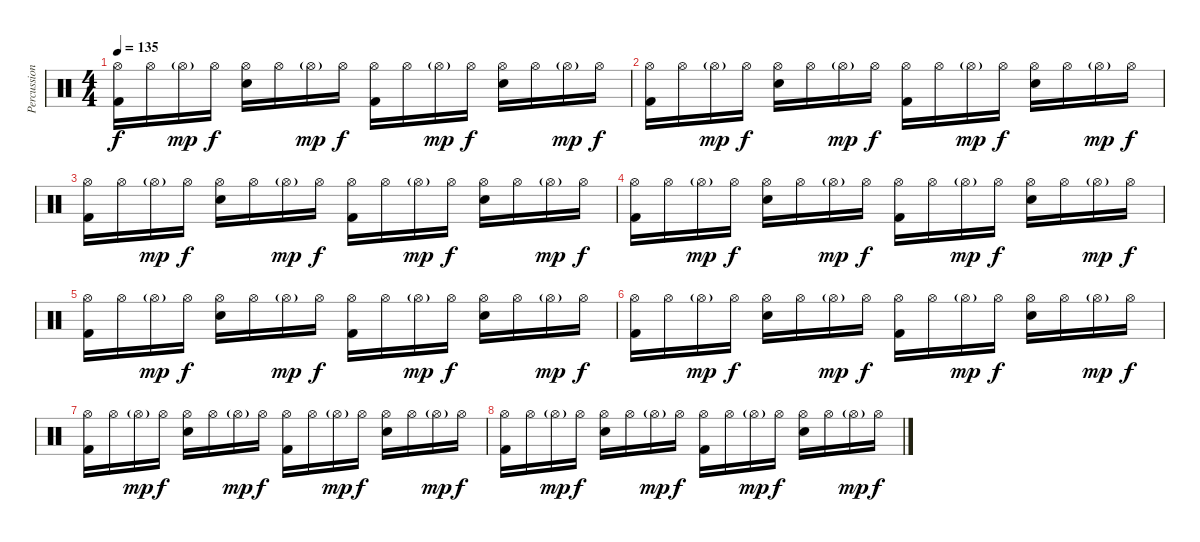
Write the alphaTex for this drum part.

\track ("Percussion" "Percussion") {instrument percussion}
\staff {score}
\articulation defaults
\ts (4 4)
\tempo 135
\clef neutral
\ks c
("Hi-Hat (open)" "Kick (hit) 2").16{dy f} "Hi-Hat (open)".16 "Hi-Hat (open)"{g}.16{dy mp} "Hi-Hat (open)".16{dy f} ("Hi-Hat (open)" "Electric Snare (hit)").16 "Hi-Hat (open)".16 "Hi-Hat (open)"{g}.16{dy mp} "Hi-Hat (open)".16{dy f} ("Hi-Hat (open)" "Kick (hit) 2").16 "Hi-Hat (open)".16 "Hi-Hat (open)"{g}.16{dy mp} "Hi-Hat (open)".16{dy f} ("Hi-Hat (open)" "Electric Snare (hit)").16 "Hi-Hat (open)".16 "Hi-Hat (open)"{g}.16{dy mp} "Hi-Hat (open)".16{dy f} |
("Hi-Hat (open)" "Kick (hit) 2").16 "Hi-Hat (open)".16 "Hi-Hat (open)"{g}.16{dy mp} "Hi-Hat (open)".16{dy f} ("Hi-Hat (open)" "Electric Snare (hit)").16 "Hi-Hat (open)".16 "Hi-Hat (open)"{g}.16{dy mp} "Hi-Hat (open)".16{dy f} ("Hi-Hat (open)" "Kick (hit) 2").16 "Hi-Hat (open)".16 "Hi-Hat (open)"{g}.16{dy mp} "Hi-Hat (open)".16{dy f} ("Hi-Hat (open)" "Electric Snare (hit)").16 "Hi-Hat (open)".16 "Hi-Hat (open)"{g}.16{dy mp} "Hi-Hat (open)".16{dy f} |
("Hi-Hat (open)" "Kick (hit) 2").16 "Hi-Hat (open)".16 "Hi-Hat (open)"{g}.16{dy mp} "Hi-Hat (open)".16{dy f} ("Hi-Hat (open)" "Electric Snare (hit)").16 "Hi-Hat (open)".16 "Hi-Hat (open)"{g}.16{dy mp} "Hi-Hat (open)".16{dy f} ("Hi-Hat (open)" "Kick (hit) 2").16 "Hi-Hat (open)".16 "Hi-Hat (open)"{g}.16{dy mp} "Hi-Hat (open)".16{dy f} ("Hi-Hat (open)" "Electric Snare (hit)").16 "Hi-Hat (open)".16 "Hi-Hat (open)"{g}.16{dy mp} "Hi-Hat (open)".16{dy f} |
("Hi-Hat (open)" "Kick (hit) 2").16 "Hi-Hat (open)".16 "Hi-Hat (open)"{g}.16{dy mp} "Hi-Hat (open)".16{dy f} ("Hi-Hat (open)" "Electric Snare (hit)").16 "Hi-Hat (open)".16 "Hi-Hat (open)"{g}.16{dy mp} "Hi-Hat (open)".16{dy f} ("Hi-Hat (open)" "Kick (hit) 2").16 "Hi-Hat (open)".16 "Hi-Hat (open)"{g}.16{dy mp} "Hi-Hat (open)".16{dy f} ("Hi-Hat (open)" "Electric Snare (hit)").16 "Hi-Hat (open)".16 "Hi-Hat (open)"{g}.16{dy mp} "Hi-Hat (open)".16{dy f} |
("Hi-Hat (open)" "Kick (hit) 2").16 "Hi-Hat (open)".16 "Hi-Hat (open)"{g}.16{dy mp} "Hi-Hat (open)".16{dy f} ("Hi-Hat (open)" "Electric Snare (hit)").16 "Hi-Hat (open)".16 "Hi-Hat (open)"{g}.16{dy mp} "Hi-Hat (open)".16{dy f} ("Hi-Hat (open)" "Kick (hit) 2").16 "Hi-Hat (open)".16 "Hi-Hat (open)"{g}.16{dy mp} "Hi-Hat (open)".16{dy f} ("Hi-Hat (open)" "Electric Snare (hit)").16 "Hi-Hat (open)".16 "Hi-Hat (open)"{g}.16{dy mp} "Hi-Hat (open)".16{dy f} |
("Hi-Hat (open)" "Kick (hit) 2").16 "Hi-Hat (open)".16 "Hi-Hat (open)"{g}.16{dy mp} "Hi-Hat (open)".16{dy f} ("Hi-Hat (open)" "Electric Snare (hit)").16 "Hi-Hat (open)".16 "Hi-Hat (open)"{g}.16{dy mp} "Hi-Hat (open)".16{dy f} ("Hi-Hat (open)" "Kick (hit) 2").16 "Hi-Hat (open)".16 "Hi-Hat (open)"{g}.16{dy mp} "Hi-Hat (open)".16{dy f} ("Hi-Hat (open)" "Electric Snare (hit)").16 "Hi-Hat (open)".16 "Hi-Hat (open)"{g}.16{dy mp} "Hi-Hat (open)".16{dy f} |
("Hi-Hat (open)" "Kick (hit) 2").16 "Hi-Hat (open)".16 "Hi-Hat (open)"{g}.16{dy mp} "Hi-Hat (open)".16{dy f} ("Hi-Hat (open)" "Electric Snare (hit)").16 "Hi-Hat (open)".16 "Hi-Hat (open)"{g}.16{dy mp} "Hi-Hat (open)".16{dy f} ("Hi-Hat (open)" "Kick (hit) 2").16 "Hi-Hat (open)".16 "Hi-Hat (open)"{g}.16{dy mp} "Hi-Hat (open)".16{dy f} ("Hi-Hat (open)" "Electric Snare (hit)").16 "Hi-Hat (open)".16 "Hi-Hat (open)"{g}.16{dy mp} "Hi-Hat (open)".16{dy f} |
("Hi-Hat (open)" "Kick (hit) 2").16 "Hi-Hat (open)".16 "Hi-Hat (open)"{g}.16{dy mp} "Hi-Hat (open)".16{dy f} ("Hi-Hat (open)" "Electric Snare (hit)").16 "Hi-Hat (open)".16 "Hi-Hat (open)"{g}.16{dy mp} "Hi-Hat (open)".16{dy f} ("Hi-Hat (open)" "Kick (hit) 2").16 "Hi-Hat (open)".16 "Hi-Hat (open)"{g}.16{dy mp} "Hi-Hat (open)".16{dy f} ("Hi-Hat (open)" "Electric Snare (hit)").16 "Hi-Hat (open)".16 "Hi-Hat (open)"{g}.16{dy mp} "Hi-Hat (open)".16{dy f}
